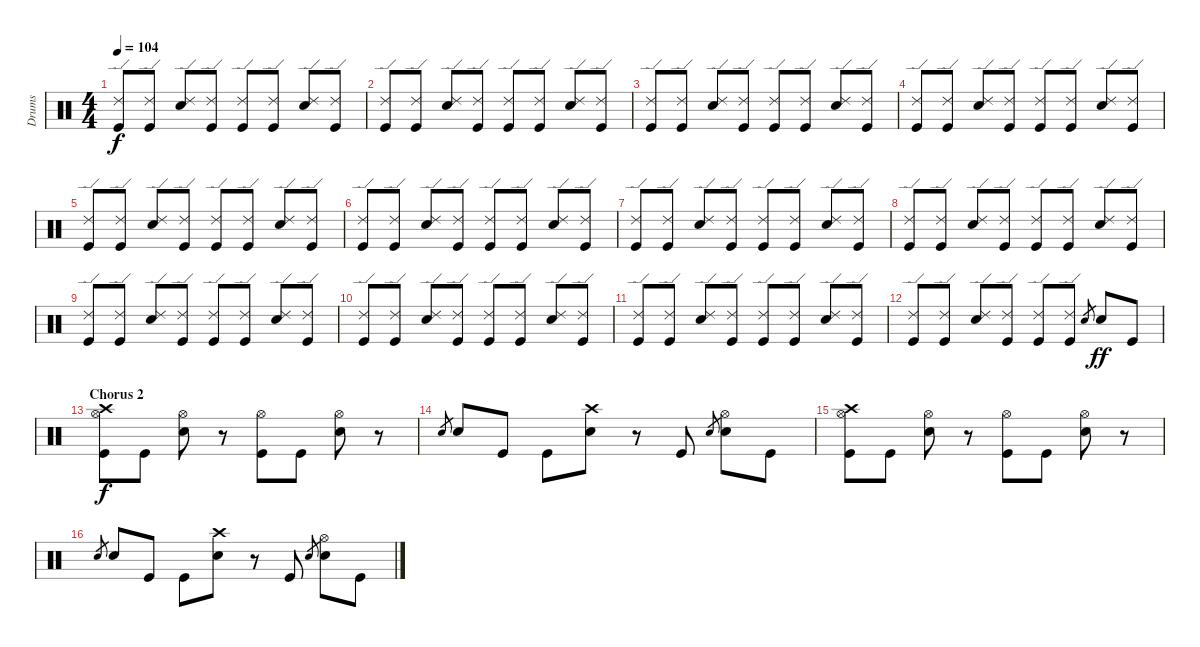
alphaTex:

\track ("Drums" "Drums") {instrument percussion}
\staff {score}
\articulation defaults
\ts (4 4)
\tempo 104
\clef neutral
\ks c
("Ride (edge) 2" "Kick (hit)").8{dy f} ("Ride (edge) 2" "Kick (hit)").8 ("Ride (edge) 2" "Snare (hit) 2").8 ("Ride (edge) 2" "Kick (hit)").8 ("Ride (edge) 2" "Kick (hit)").8 ("Ride (edge) 2" "Kick (hit)").8 ("Ride (edge) 2" "Snare (hit) 2").8 ("Ride (edge) 2" "Kick (hit)").8 |
("Ride (edge) 2" "Kick (hit)").8 ("Ride (edge) 2" "Kick (hit)").8 ("Ride (edge) 2" "Snare (hit) 2").8 ("Ride (edge) 2" "Kick (hit)").8 ("Ride (edge) 2" "Kick (hit)").8 ("Ride (edge) 2" "Kick (hit)").8 ("Ride (edge) 2" "Snare (hit) 2").8 ("Ride (edge) 2" "Kick (hit)").8 |
("Ride (edge) 2" "Kick (hit)").8 ("Ride (edge) 2" "Kick (hit)").8 ("Ride (edge) 2" "Snare (hit) 2").8 ("Ride (edge) 2" "Kick (hit)").8 ("Ride (edge) 2" "Kick (hit)").8 ("Ride (edge) 2" "Kick (hit)").8 ("Ride (edge) 2" "Snare (hit) 2").8 ("Ride (edge) 2" "Kick (hit)").8 |
("Ride (edge) 2" "Kick (hit)").8 ("Ride (edge) 2" "Kick (hit)").8 ("Ride (edge) 2" "Snare (hit) 2").8 ("Ride (edge) 2" "Kick (hit)").8 ("Ride (edge) 2" "Kick (hit)").8 ("Ride (edge) 2" "Kick (hit)").8 ("Ride (edge) 2" "Snare (hit) 2").8 ("Ride (edge) 2" "Kick (hit)").8 |
("Ride (edge) 2" "Kick (hit)").8 ("Ride (edge) 2" "Kick (hit)").8 ("Ride (edge) 2" "Snare (hit) 2").8 ("Ride (edge) 2" "Kick (hit)").8 ("Ride (edge) 2" "Kick (hit)").8 ("Ride (edge) 2" "Kick (hit)").8 ("Ride (edge) 2" "Snare (hit) 2").8 ("Ride (edge) 2" "Kick (hit)").8 |
("Ride (edge) 2" "Kick (hit)").8 ("Ride (edge) 2" "Kick (hit)").8 ("Ride (edge) 2" "Snare (hit) 2").8 ("Ride (edge) 2" "Kick (hit)").8 ("Ride (edge) 2" "Kick (hit)").8 ("Ride (edge) 2" "Kick (hit)").8 ("Ride (edge) 2" "Snare (hit) 2").8 ("Ride (edge) 2" "Kick (hit)").8 |
("Ride (edge) 2" "Kick (hit)").8 ("Ride (edge) 2" "Kick (hit)").8 ("Ride (edge) 2" "Snare (hit) 2").8 ("Ride (edge) 2" "Kick (hit)").8 ("Ride (edge) 2" "Kick (hit)").8 ("Ride (edge) 2" "Kick (hit)").8 ("Ride (edge) 2" "Snare (hit) 2").8 ("Ride (edge) 2" "Kick (hit)").8 |
("Ride (edge) 2" "Kick (hit)").8 ("Ride (edge) 2" "Kick (hit)").8 ("Ride (edge) 2" "Snare (hit) 2").8 ("Ride (edge) 2" "Kick (hit)").8 ("Ride (edge) 2" "Kick (hit)").8 ("Ride (edge) 2" "Kick (hit)").8 ("Ride (edge) 2" "Snare (hit) 2").8 ("Ride (edge) 2" "Kick (hit)").8 |
("Ride (edge) 2" "Kick (hit)").8 ("Ride (edge) 2" "Kick (hit)").8 ("Ride (edge) 2" "Snare (hit) 2").8 ("Ride (edge) 2" "Kick (hit)").8 ("Ride (edge) 2" "Kick (hit)").8 ("Ride (edge) 2" "Kick (hit)").8 ("Ride (edge) 2" "Snare (hit) 2").8 ("Ride (edge) 2" "Kick (hit)").8 |
("Ride (edge) 2" "Kick (hit)").8 ("Ride (edge) 2" "Kick (hit)").8 ("Ride (edge) 2" "Snare (hit) 2").8 ("Ride (edge) 2" "Kick (hit)").8 ("Ride (edge) 2" "Kick (hit)").8 ("Ride (edge) 2" "Kick (hit)").8 ("Ride (edge) 2" "Snare (hit) 2").8 ("Ride (edge) 2" "Kick (hit)").8 |
("Ride (edge) 2" "Kick (hit)").8 ("Ride (edge) 2" "Kick (hit)").8 ("Ride (edge) 2" "Snare (hit) 2").8 ("Ride (edge) 2" "Kick (hit)").8 ("Ride (edge) 2" "Kick (hit)").8 ("Ride (edge) 2" "Kick (hit)").8 ("Ride (edge) 2" "Snare (hit) 2").8 ("Ride (edge) 2" "Kick (hit)").8 |
("Ride (edge) 2" "Kick (hit)").8 ("Ride (edge) 2" "Kick (hit)").8 ("Ride (edge) 2" "Snare (hit) 2").8 ("Ride (edge) 2" "Kick (hit)").8 ("Ride (edge) 2" "Kick (hit)").8 ("Ride (edge) 2" "Kick (hit)").8 "Snare (hit) 2".8{gr} "Snare (hit) 2".8{dy ff} "Kick (hit)".8 |
\section ("" "Chorus 2")
("Hi-Hat (open)" "Crash high (hit)" "Kick (hit)").8{dy f} "Kick (hit)".8 ("Hi-Hat (open)" "Snare (hit) 2").8 r.8 ("Hi-Hat (open)" "Kick (hit)").8 "Kick (hit)".8 ("Hi-Hat (open)" "Snare (hit) 2").8 r.8 |
"Snare (hit) 2".8{gr} "Snare (hit) 2".8 "Kick (hit)".8 "Kick (hit)".8 ("Crash high (hit)" "Snare (hit) 2").8 r.8 "Kick (hit)".8 "Snare (hit) 2".8{gr} ("Hi-Hat (open)" "Snare (hit) 2").8 "Kick (hit)".8 |
("Hi-Hat (open)" "Crash high (hit)" "Kick (hit)").8 "Kick (hit)".8 ("Hi-Hat (open)" "Snare (hit) 2").8 r.8 ("Hi-Hat (open)" "Kick (hit)").8 "Kick (hit)".8 ("Hi-Hat (open)" "Snare (hit) 2").8 r.8 |
"Snare (hit) 2".8{gr} "Snare (hit) 2".8 "Kick (hit)".8 "Kick (hit)".8 ("Crash high (hit)" "Snare (hit) 2").8 r.8 "Kick (hit)".8 "Snare (hit) 2".8{gr} ("Hi-Hat (open)" "Snare (hit) 2").8 "Kick (hit)".8
